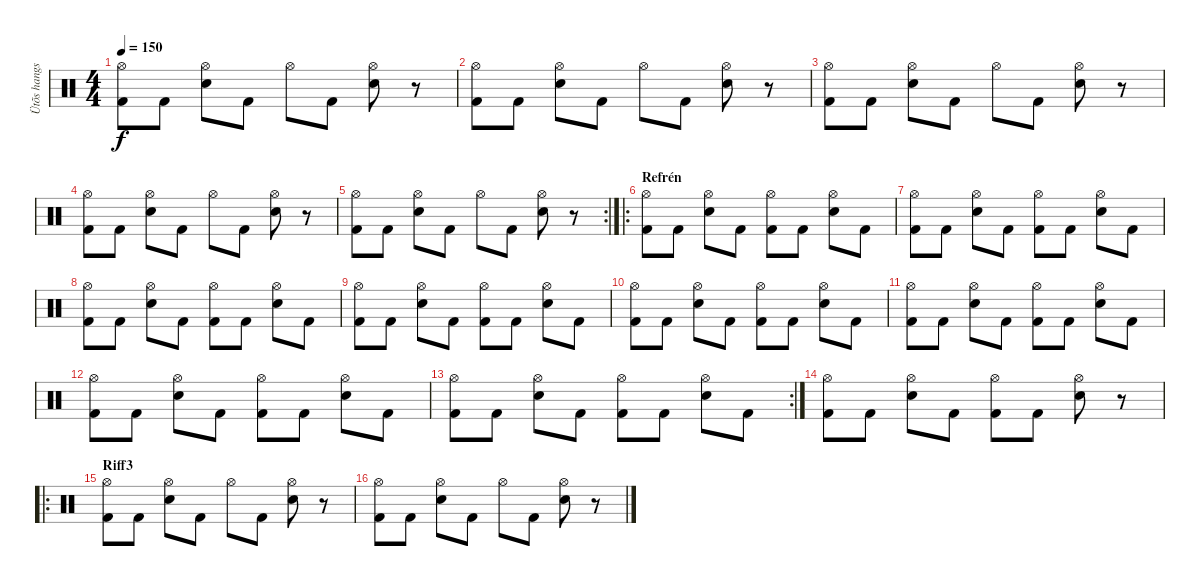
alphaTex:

\track ("Ütõs hangszer" "Ütõs hangs") {instrument percussion}
\staff {score}
\articulation defaults
\ts (4 4)
\tempo 150
\clef neutral
\ks c
("Hi-Hat (open)" "Kick (hit) 2").8{dy f} "Kick (hit) 2".8 ("Hi-Hat (open)" "Electric Snare (hit)").8 "Kick (hit) 2".8 "Hi-Hat (open)".8 "Kick (hit) 2".8 ("Hi-Hat (open)" "Electric Snare (hit)").8 r.8 |
("Hi-Hat (open)" "Kick (hit) 2").8 "Kick (hit) 2".8 ("Hi-Hat (open)" "Electric Snare (hit)").8 "Kick (hit) 2".8 "Hi-Hat (open)".8 "Kick (hit) 2".8 ("Hi-Hat (open)" "Electric Snare (hit)").8 r.8 |
("Hi-Hat (open)" "Kick (hit) 2").8 "Kick (hit) 2".8 ("Hi-Hat (open)" "Electric Snare (hit)").8 "Kick (hit) 2".8 "Hi-Hat (open)".8 "Kick (hit) 2".8 ("Hi-Hat (open)" "Electric Snare (hit)").8 r.8 |
("Hi-Hat (open)" "Kick (hit) 2").8 "Kick (hit) 2".8 ("Hi-Hat (open)" "Electric Snare (hit)").8 "Kick (hit) 2".8 "Hi-Hat (open)".8 "Kick (hit) 2".8 ("Hi-Hat (open)" "Electric Snare (hit)").8 r.8 |
\rc 2
("Hi-Hat (open)" "Kick (hit) 2").8 "Kick (hit) 2".8 ("Hi-Hat (open)" "Electric Snare (hit)").8 "Kick (hit) 2".8 "Hi-Hat (open)".8 "Kick (hit) 2".8 ("Hi-Hat (open)" "Electric Snare (hit)").8 r.8 |
\ro
\section ("" "Refrén")
("Hi-Hat (open)" "Kick (hit) 2").8 "Kick (hit) 2".8 ("Hi-Hat (open)" "Electric Snare (hit)").8 "Kick (hit) 2".8 ("Hi-Hat (open)" "Kick (hit) 2").8 "Kick (hit) 2".8 ("Hi-Hat (open)" "Electric Snare (hit)").8 "Kick (hit) 2".8 |
("Hi-Hat (open)" "Kick (hit) 2").8 "Kick (hit) 2".8 ("Hi-Hat (open)" "Electric Snare (hit)").8 "Kick (hit) 2".8 ("Hi-Hat (open)" "Kick (hit) 2").8 "Kick (hit) 2".8 ("Hi-Hat (open)" "Electric Snare (hit)").8 "Kick (hit) 2".8 |
("Hi-Hat (open)" "Kick (hit) 2").8 "Kick (hit) 2".8 ("Hi-Hat (open)" "Electric Snare (hit)").8 "Kick (hit) 2".8 ("Hi-Hat (open)" "Kick (hit) 2").8 "Kick (hit) 2".8 ("Hi-Hat (open)" "Electric Snare (hit)").8 "Kick (hit) 2".8 |
("Hi-Hat (open)" "Kick (hit) 2").8 "Kick (hit) 2".8 ("Hi-Hat (open)" "Electric Snare (hit)").8 "Kick (hit) 2".8 ("Hi-Hat (open)" "Kick (hit) 2").8 "Kick (hit) 2".8 ("Hi-Hat (open)" "Electric Snare (hit)").8 "Kick (hit) 2".8 |
("Hi-Hat (open)" "Kick (hit) 2").8 "Kick (hit) 2".8 ("Hi-Hat (open)" "Electric Snare (hit)").8 "Kick (hit) 2".8 ("Hi-Hat (open)" "Kick (hit) 2").8 "Kick (hit) 2".8 ("Hi-Hat (open)" "Electric Snare (hit)").8 "Kick (hit) 2".8 |
("Hi-Hat (open)" "Kick (hit) 2").8 "Kick (hit) 2".8 ("Hi-Hat (open)" "Electric Snare (hit)").8 "Kick (hit) 2".8 ("Hi-Hat (open)" "Kick (hit) 2").8 "Kick (hit) 2".8 ("Hi-Hat (open)" "Electric Snare (hit)").8 "Kick (hit) 2".8 |
("Hi-Hat (open)" "Kick (hit) 2").8 "Kick (hit) 2".8 ("Hi-Hat (open)" "Electric Snare (hit)").8 "Kick (hit) 2".8 ("Hi-Hat (open)" "Kick (hit) 2").8 "Kick (hit) 2".8 ("Hi-Hat (open)" "Electric Snare (hit)").8 "Kick (hit) 2".8 |
\rc 2
("Hi-Hat (open)" "Kick (hit) 2").8 "Kick (hit) 2".8 ("Hi-Hat (open)" "Electric Snare (hit)").8 "Kick (hit) 2".8 ("Hi-Hat (open)" "Kick (hit) 2").8 "Kick (hit) 2".8 ("Hi-Hat (open)" "Electric Snare (hit)").8 "Kick (hit) 2".8 |
("Hi-Hat (open)" "Kick (hit) 2").8 "Kick (hit) 2".8 ("Hi-Hat (open)" "Electric Snare (hit)").8 "Kick (hit) 2".8 ("Hi-Hat (open)" "Kick (hit) 2").8 "Kick (hit) 2".8 ("Hi-Hat (open)" "Electric Snare (hit)").8 r.8 |
\ro
\section ("" "Riff3")
("Hi-Hat (open)" "Kick (hit) 2").8 "Kick (hit) 2".8 ("Hi-Hat (open)" "Electric Snare (hit)").8 "Kick (hit) 2".8 "Hi-Hat (open)".8 "Kick (hit) 2".8 ("Hi-Hat (open)" "Electric Snare (hit)").8 r.8 |
("Hi-Hat (open)" "Kick (hit) 2").8 "Kick (hit) 2".8 ("Hi-Hat (open)" "Electric Snare (hit)").8 "Kick (hit) 2".8 "Hi-Hat (open)".8 "Kick (hit) 2".8 ("Hi-Hat (open)" "Electric Snare (hit)").8 r.8
